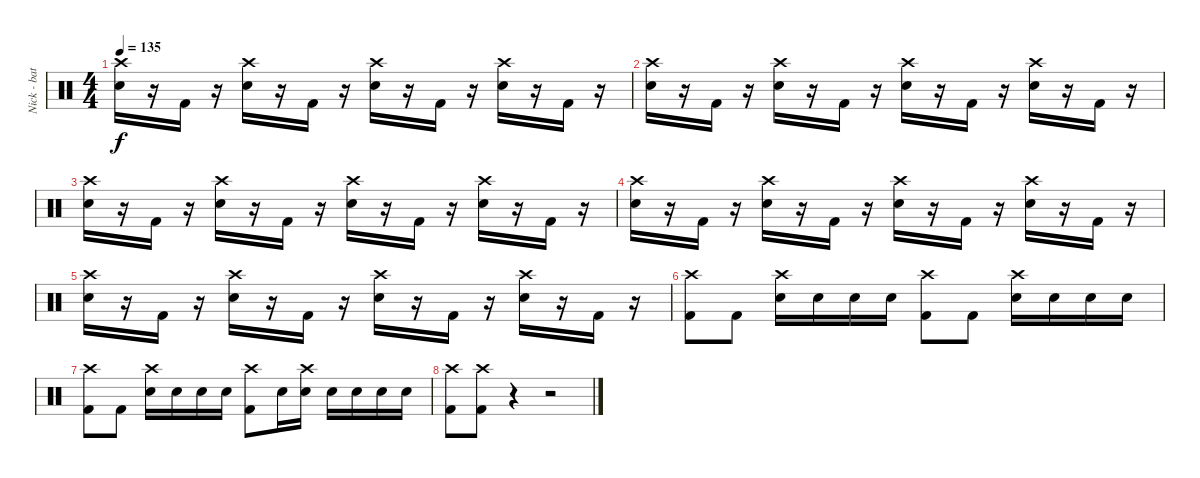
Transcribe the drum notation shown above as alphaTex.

\track ("Nick - batterie" "Nick - bat") {instrument percussion}
\staff {score}
\articulation defaults
\ts (4 4)
\tempo 135
\clef neutral
\ks c
("Crash high (hit)" "Electric Snare (hit)").16{dy f} r.16 "Kick (hit) 2".16 r.16 ("Crash high (hit)" "Electric Snare (hit)").16 r.16 "Kick (hit) 2".16 r.16 ("Crash high (hit)" "Electric Snare (hit)").16 r.16 "Kick (hit) 2".16 r.16 ("Crash high (hit)" "Electric Snare (hit)").16 r.16 "Kick (hit) 2".16 r.16 |
("Crash high (hit)" "Electric Snare (hit)").16 r.16 "Kick (hit) 2".16 r.16 ("Crash high (hit)" "Electric Snare (hit)").16 r.16 "Kick (hit) 2".16 r.16 ("Crash high (hit)" "Electric Snare (hit)").16 r.16 "Kick (hit) 2".16 r.16 ("Crash high (hit)" "Electric Snare (hit)").16 r.16 "Kick (hit) 2".16 r.16 |
("Crash high (hit)" "Electric Snare (hit)").16 r.16 "Kick (hit) 2".16 r.16 ("Crash high (hit)" "Electric Snare (hit)").16 r.16 "Kick (hit) 2".16 r.16 ("Crash high (hit)" "Electric Snare (hit)").16 r.16 "Kick (hit) 2".16 r.16 ("Crash high (hit)" "Electric Snare (hit)").16 r.16 "Kick (hit) 2".16 r.16 |
("Crash high (hit)" "Electric Snare (hit)").16 r.16 "Kick (hit) 2".16 r.16 ("Crash high (hit)" "Electric Snare (hit)").16 r.16 "Kick (hit) 2".16 r.16 ("Crash high (hit)" "Electric Snare (hit)").16 r.16 "Kick (hit) 2".16 r.16 ("Crash high (hit)" "Electric Snare (hit)").16 r.16 "Kick (hit) 2".16 r.16 |
("Crash high (hit)" "Electric Snare (hit)").16 r.16 "Kick (hit) 2".16 r.16 ("Crash high (hit)" "Electric Snare (hit)").16 r.16 "Kick (hit) 2".16 r.16 ("Crash high (hit)" "Electric Snare (hit)").16 r.16 "Kick (hit) 2".16 r.16 ("Crash high (hit)" "Electric Snare (hit)").16 r.16 "Kick (hit) 2".16 r.16 |
("Crash high (hit)" "Kick (hit) 2").8 "Kick (hit) 2".8 ("Crash high (hit)" "Electric Snare (hit)").16 "Electric Snare (hit)".16 "Electric Snare (hit)".16 "Electric Snare (hit)".16 ("Crash high (hit)" "Kick (hit) 2").8 "Kick (hit) 2".8 ("Crash high (hit)" "Electric Snare (hit)").16 "Electric Snare (hit)".16 "Electric Snare (hit)".16 "Electric Snare (hit)".16 |
("Crash high (hit)" "Kick (hit) 2").8 "Kick (hit) 2".8 ("Crash high (hit)" "Electric Snare (hit)").16 "Electric Snare (hit)".16 "Electric Snare (hit)".16 "Electric Snare (hit)".16 ("Crash high (hit)" "Kick (hit) 2").8 "Electric Snare (hit)".16 ("Crash high (hit)" "Electric Snare (hit)").16 "Electric Snare (hit)".16 "Electric Snare (hit)".16 "Electric Snare (hit)".16 "Electric Snare (hit)".16 |
("Crash high (hit)" "Kick (hit) 2").8 ("Crash high (hit)" "Kick (hit) 2").8 r.4 r.2
